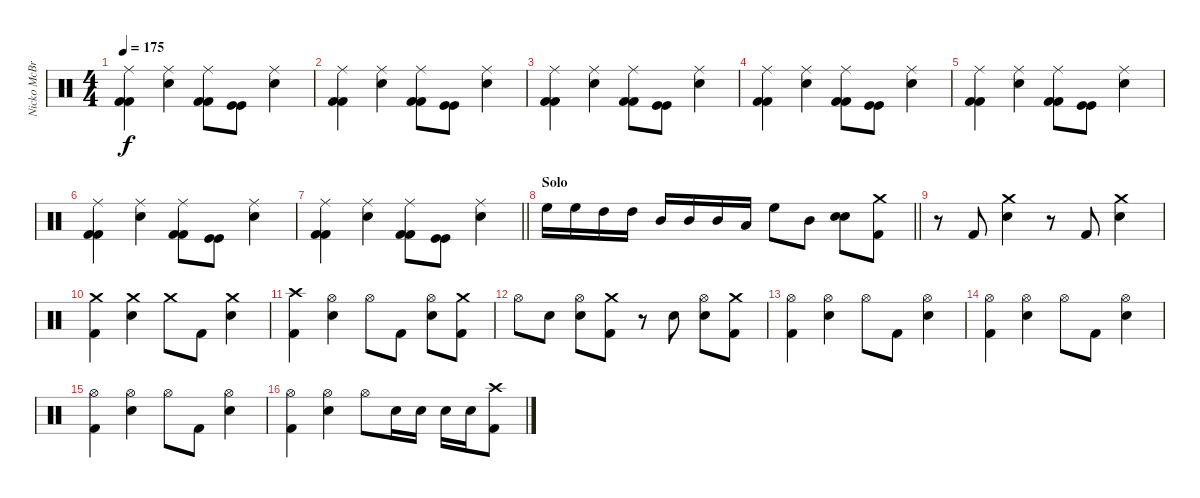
\track ("Nicko McBrian" "Nicko McBr") {instrument percussion}
\staff {score}
\articulation defaults
\ts (4 4)
\tempo 175
\clef neutral
\ks c
("Ride (middle)" "Kick (hit) 2" "Kick (hit) 2").4{dy f} ("Ride (middle)" "Snare (hit) 2").4 ("Ride (middle)" "Kick (hit) 2" "Kick (hit) 2").8 ("Kick (hit)" "Kick (hit)").8 ("Ride (middle)" "Snare (hit) 2").4 |
("Ride (middle)" "Kick (hit) 2" "Kick (hit) 2").4 ("Ride (middle)" "Snare (hit) 2").4 ("Ride (middle)" "Kick (hit) 2" "Kick (hit) 2").8 ("Kick (hit)" "Kick (hit)").8 ("Ride (middle)" "Snare (hit) 2").4 |
("Ride (middle)" "Kick (hit) 2" "Kick (hit) 2").4 ("Ride (middle)" "Snare (hit) 2").4 ("Ride (middle)" "Kick (hit) 2" "Kick (hit) 2").8 ("Kick (hit)" "Kick (hit)").8 ("Ride (middle)" "Snare (hit) 2").4 |
("Ride (middle)" "Kick (hit) 2" "Kick (hit) 2").4 ("Ride (middle)" "Snare (hit) 2").4 ("Ride (middle)" "Kick (hit) 2" "Kick (hit) 2").8 ("Kick (hit)" "Kick (hit)").8 ("Ride (middle)" "Snare (hit) 2").4 |
("Ride (middle)" "Kick (hit) 2" "Kick (hit) 2").4 ("Ride (middle)" "Snare (hit) 2").4 ("Ride (middle)" "Kick (hit) 2" "Kick (hit) 2").8 ("Kick (hit)" "Kick (hit)").8 ("Ride (middle)" "Snare (hit) 2").4 |
("Ride (middle)" "Kick (hit) 2" "Kick (hit) 2").4 ("Ride (middle)" "Snare (hit) 2").4 ("Ride (middle)" "Kick (hit) 2" "Kick (hit) 2").8 ("Kick (hit)" "Kick (hit)").8 ("Ride (middle)" "Snare (hit) 2").4 |
\barLineRight lightlight
("Ride (middle)" "Kick (hit) 2" "Kick (hit) 2").4 ("Ride (middle)" "Snare (hit) 2").4 ("Ride (middle)" "Kick (hit) 2" "Kick (hit) 2").8 ("Kick (hit)" "Kick (hit)").8 ("Ride (middle)" "Snare (hit) 2").4 |
\section ("" "Solo")
\barLineRight lightlight "High Floor Tom (hit)".16 "High Floor Tom (hit)".16 "High Tom (hit)".16 "High Tom (hit)".16 "Mid Tom (hit)".16 "Mid Tom (hit)".16 "Mid Tom (hit)".16 "Low Tom (hit)".16 "High Floor Tom (hit)".8 "Mid Tom (hit)".8
("Snare (hit) 2" "Snare (hit) 2").8{bd 120} ("Crash medium (hit)" "Kick (hit) 2").8 |
r.8 "Kick (hit) 2".8 ("Crash medium (hit)" "Snare (hit) 2").4 r.8 "Kick (hit) 2".8 ("Crash medium (hit)" "Snare (hit) 2").4 |
("Crash medium (hit)" "Kick (hit) 2").4 ("Crash medium (hit)" "Snare (hit) 2").4 "Crash medium (hit)".8 "Kick (hit) 2".8 ("Crash medium (hit)" "Snare (hit) 2").4 |
("Crash high (hit)" "Kick (hit) 2").4 ("Hi-Hat (open)" "Snare (hit) 2").4 "Hi-Hat (open)".8 "Kick (hit) 2".8 ("Hi-Hat (open)" "Snare (hit) 2").8 ("Crash medium (hit)" "Kick (hit) 2").8 |
"Hi-Hat (open)".8 "Snare (hit) 2".8 ("Hi-Hat (open)" "Snare (hit) 2").8 ("Crash medium (hit)" "Kick (hit) 2").8 r.8 "Snare (hit) 2".8 ("Hi-Hat (open)" "Snare (hit) 2").8 ("Crash medium (hit)" "Kick (hit) 2").8 |
("Hi-Hat (open)" "Kick (hit) 2").4 ("Hi-Hat (open)" "Snare (hit) 2").4 "Hi-Hat (open)".8 "Kick (hit) 2".8 ("Hi-Hat (open)" "Snare (hit) 2").4 |
("Hi-Hat (open)" "Kick (hit) 2").4 ("Hi-Hat (open)" "Snare (hit) 2").4 "Hi-Hat (open)".8 "Kick (hit) 2".8 ("Hi-Hat (open)" "Snare (hit) 2").4 |
("Hi-Hat (open)" "Kick (hit) 2").4 ("Hi-Hat (open)" "Snare (hit) 2").4 "Hi-Hat (open)".8 "Kick (hit) 2".8 ("Hi-Hat (open)" "Snare (hit) 2").4 |
("Hi-Hat (open)" "Kick (hit) 2").4 ("Hi-Hat (open)" "Snare (hit) 2").4 "Hi-Hat (open)".8 "Snare (hit) 2".16 "Snare (hit) 2".16 "Snare (hit) 2".16 "Snare (hit) 2".16 ("Crash high (hit)" "Kick (hit) 2").8
